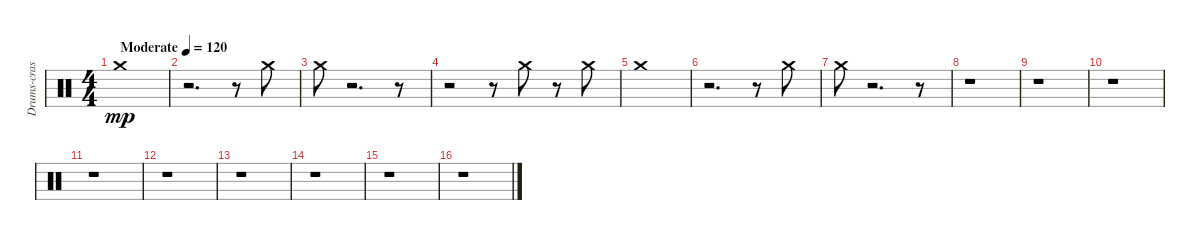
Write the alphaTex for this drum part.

\track ("Drums-crash cymbal 2" "Drums-cras") {instrument percussion}
\staff {score}
\articulation defaults
\ts (4 4)
\tempo (120 "Moderate")
\clef neutral
\ks c "Crash medium (hit)".1{dy mp}
|
r.2{d} r.8 "Crash medium (hit)".8 |
"Crash medium (hit)".8 r.2{d} r.8 |
r.2 r.8 "Crash medium (hit)".8 r.8 "Crash medium (hit)".8 |
"Crash medium (hit)".1 |
r.2{d} r.8 "Crash medium (hit)".8 |
"Crash medium (hit)".8 r.2{d} r.8 |
r.1 |
r.1 |
r.1 |
r.1 |
r.1 |
r.1 |
r.1 |
r.1 |
r.1
